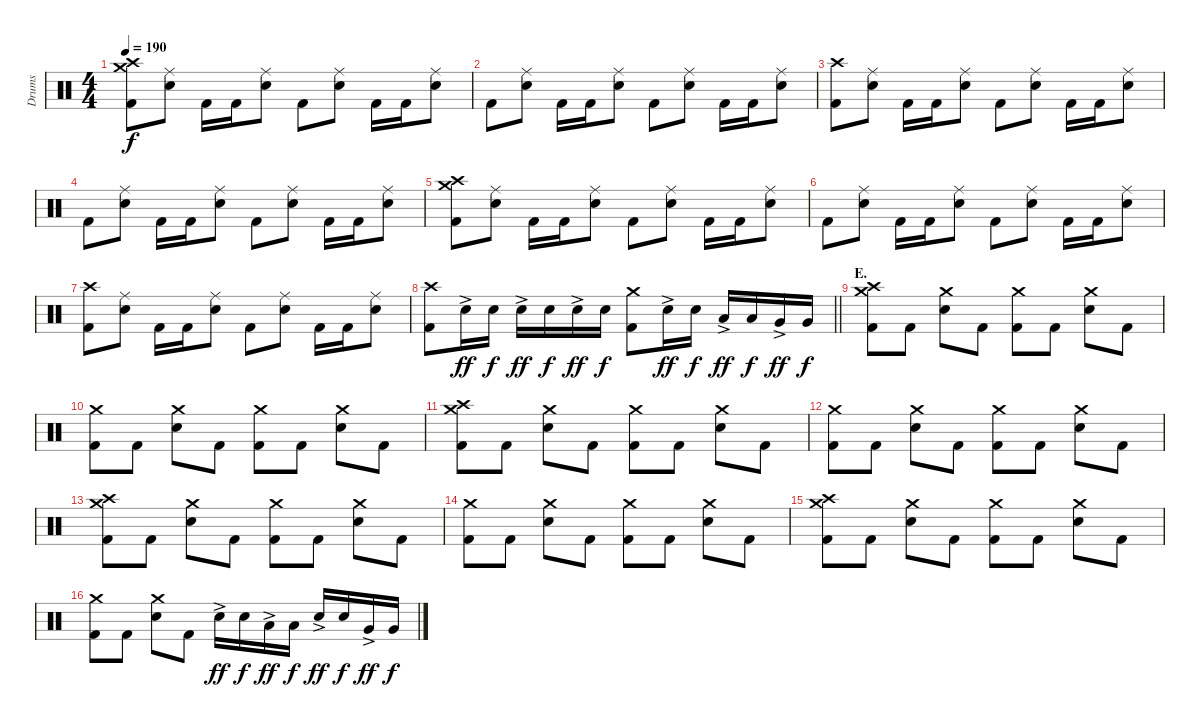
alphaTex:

\track ("Drums" "Drums") {instrument percussion}
\staff {score}
\articulation defaults
\ts (4 4)
\tempo 190
\clef neutral
\ks c
("Crash medium (hit)" "Crash high (hit)" "Kick (hit) 2").8{dy f} ("Ride (middle)" "Electric Snare (hit)").8 "Kick (hit) 2".16 "Kick (hit) 2".16 ("Ride (middle)" "Electric Snare (hit)").8 "Kick (hit) 2".8 ("Ride (middle)" "Electric Snare (hit)").8 "Kick (hit) 2".16 "Kick (hit) 2".16 ("Ride (middle)" "Electric Snare (hit)").8 |
"Kick (hit) 2".8 ("Ride (middle)" "Electric Snare (hit)").8 "Kick (hit) 2".16 "Kick (hit) 2".16 ("Ride (middle)" "Electric Snare (hit)").8 "Kick (hit) 2".8 ("Ride (middle)" "Electric Snare (hit)").8 "Kick (hit) 2".16 "Kick (hit) 2".16 ("Ride (middle)" "Electric Snare (hit)").8 |
("Crash high (hit)" "Kick (hit) 2").8 ("Ride (middle)" "Electric Snare (hit)").8 "Kick (hit) 2".16 "Kick (hit) 2".16 ("Ride (middle)" "Electric Snare (hit)").8 "Kick (hit) 2".8 ("Ride (middle)" "Electric Snare (hit)").8 "Kick (hit) 2".16 "Kick (hit) 2".16 ("Ride (middle)" "Electric Snare (hit)").8 |
"Kick (hit) 2".8 ("Ride (middle)" "Electric Snare (hit)").8 "Kick (hit) 2".16 "Kick (hit) 2".16 ("Ride (middle)" "Electric Snare (hit)").8 "Kick (hit) 2".8 ("Ride (middle)" "Electric Snare (hit)").8 "Kick (hit) 2".16 "Kick (hit) 2".16 ("Ride (middle)" "Electric Snare (hit)").8 |
("Crash medium (hit)" "Crash high (hit)" "Kick (hit) 2").8 ("Ride (middle)" "Electric Snare (hit)").8 "Kick (hit) 2".16 "Kick (hit) 2".16 ("Ride (middle)" "Electric Snare (hit)").8 "Kick (hit) 2".8 ("Ride (middle)" "Electric Snare (hit)").8 "Kick (hit) 2".16 "Kick (hit) 2".16 ("Ride (middle)" "Electric Snare (hit)").8 |
"Kick (hit) 2".8 ("Ride (middle)" "Electric Snare (hit)").8 "Kick (hit) 2".16 "Kick (hit) 2".16 ("Ride (middle)" "Electric Snare (hit)").8 "Kick (hit) 2".8 ("Ride (middle)" "Electric Snare (hit)").8 "Kick (hit) 2".16 "Kick (hit) 2".16 ("Ride (middle)" "Electric Snare (hit)").8 |
("Crash high (hit)" "Kick (hit) 2").8 ("Ride (middle)" "Electric Snare (hit)").8 "Kick (hit) 2".16 "Kick (hit) 2".16 ("Ride (middle)" "Electric Snare (hit)").8 "Kick (hit) 2".8 ("Ride (middle)" "Electric Snare (hit)").8 "Kick (hit) 2".16 "Kick (hit) 2".16 ("Ride (middle)" "Electric Snare (hit)").8 |
\barLineRight lightlight
("Crash high (hit)" "Kick (hit) 2").8 "Electric Snare (hit)"{ac}.16{dy ff} "Electric Snare (hit)".16{dy f} "Electric Snare (hit)"{ac}.16{dy ff} "Electric Snare (hit)".16{dy f} "Electric Snare (hit)"{ac}.16{dy ff} "Electric Snare (hit)".16{dy f} ("Crash medium (hit)" "Kick (hit) 2").8 "Electric Snare (hit)"{ac}.16{dy ff} "Electric Snare (hit)".16{dy f} "Low Tom (hit)"{ac}.16{dy ff} "Low Tom (hit)".16{dy f} "Very Low Tom (hit)"{ac}.16{dy ff} "Very Low Tom (hit)".16{dy f} |
\section ("" "E.")
("Crash medium (hit)" "Crash high (hit)" "Kick (hit) 2").8 "Kick (hit) 2".8 ("Crash medium (hit)" "Electric Snare (hit)").8 "Kick (hit) 2".8 ("Crash medium (hit)" "Kick (hit) 2").8 "Kick (hit) 2".8 ("Crash medium (hit)" "Electric Snare (hit)").8 "Kick (hit) 2".8 |
("Crash medium (hit)" "Kick (hit) 2").8 "Kick (hit) 2".8 ("Crash medium (hit)" "Electric Snare (hit)").8 "Kick (hit) 2".8 ("Crash medium (hit)" "Kick (hit) 2").8 "Kick (hit) 2".8 ("Crash medium (hit)" "Electric Snare (hit)").8 "Kick (hit) 2".8 |
("Crash medium (hit)" "Crash high (hit)" "Kick (hit) 2").8 "Kick (hit) 2".8 ("Crash medium (hit)" "Electric Snare (hit)").8 "Kick (hit) 2".8 ("Crash medium (hit)" "Kick (hit) 2").8 "Kick (hit) 2".8 ("Crash medium (hit)" "Electric Snare (hit)").8 "Kick (hit) 2".8 |
("Crash medium (hit)" "Kick (hit) 2").8 "Kick (hit) 2".8 ("Crash medium (hit)" "Electric Snare (hit)").8 "Kick (hit) 2".8 ("Crash medium (hit)" "Kick (hit) 2").8 "Kick (hit) 2".8 ("Crash medium (hit)" "Electric Snare (hit)").8 "Kick (hit) 2".8 |
("Crash medium (hit)" "Crash high (hit)" "Kick (hit) 2").8 "Kick (hit) 2".8 ("Crash medium (hit)" "Electric Snare (hit)").8 "Kick (hit) 2".8 ("Crash medium (hit)" "Kick (hit) 2").8 "Kick (hit) 2".8 ("Crash medium (hit)" "Electric Snare (hit)").8 "Kick (hit) 2".8 |
("Crash medium (hit)" "Kick (hit) 2").8 "Kick (hit) 2".8 ("Crash medium (hit)" "Electric Snare (hit)").8 "Kick (hit) 2".8 ("Crash medium (hit)" "Kick (hit) 2").8 "Kick (hit) 2".8 ("Crash medium (hit)" "Electric Snare (hit)").8 "Kick (hit) 2".8 |
("Crash medium (hit)" "Crash high (hit)" "Kick (hit) 2").8 "Kick (hit) 2".8 ("Crash medium (hit)" "Electric Snare (hit)").8 "Kick (hit) 2".8 ("Crash medium (hit)" "Kick (hit) 2").8 "Kick (hit) 2".8 ("Crash medium (hit)" "Electric Snare (hit)").8 "Kick (hit) 2".8 |
("Crash medium (hit)" "Kick (hit) 2").8 "Kick (hit) 2".8 ("Crash medium (hit)" "Electric Snare (hit)").8 "Kick (hit) 2".8 "Electric Snare (hit)"{ac}.16{dy ff} "Electric Snare (hit)".16{dy f} "Low Tom (hit)"{ac}.16{dy ff} "Low Tom (hit)".16{dy f} "Electric Snare (hit)"{ac}.16{dy ff} "Electric Snare (hit)".16{dy f} "Very Low Tom (hit)"{ac}.16{dy ff} "Very Low Tom (hit)".16{dy f}
